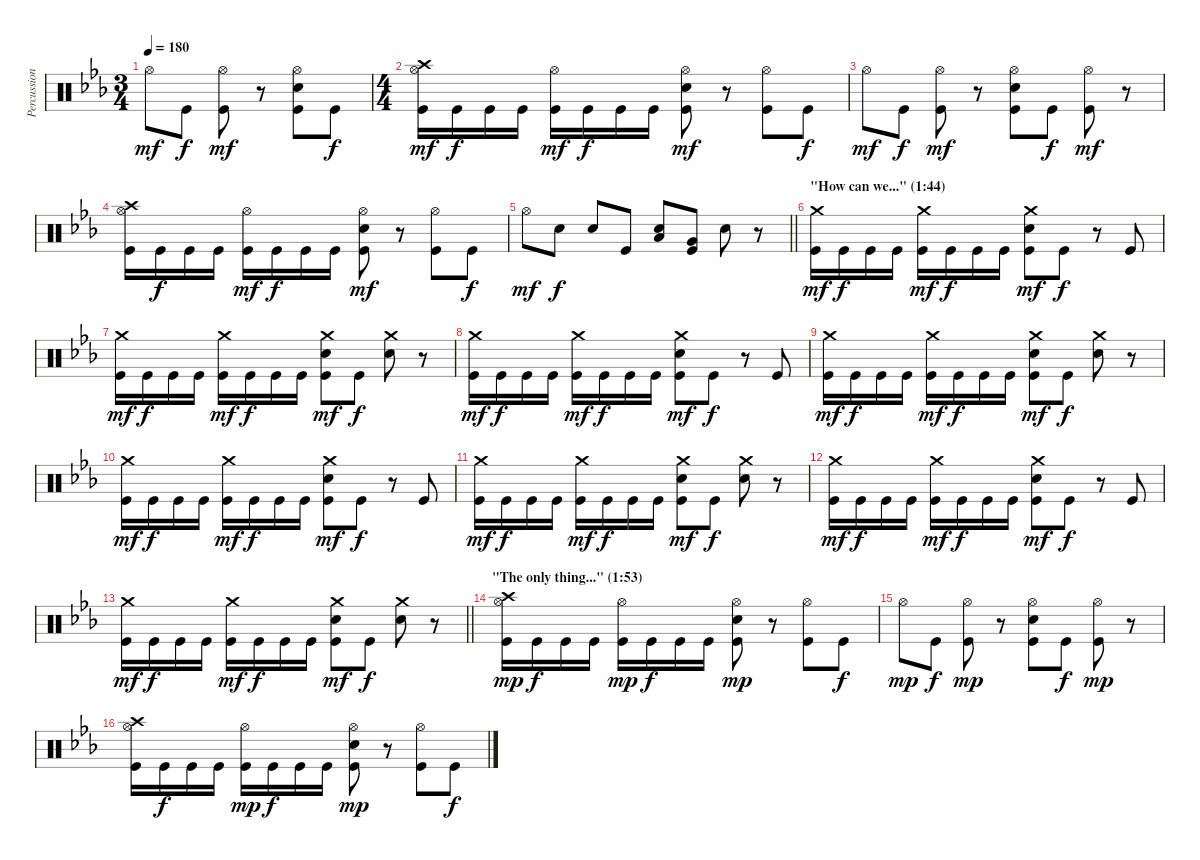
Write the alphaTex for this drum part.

\track ("Percussion" "Percussion") {instrument percussion}
\staff {score}
\articulation defaults
\ts (3 4)
\tempo 180
\clef neutral
\ks cminor "Hi-Hat (open)".8{dy mf} "Kick (hit)".8{dy f}
("Hi-Hat (open)" "Kick (hit)").8{dy mf} r.8 ("Hi-Hat (open)" "Snare (hit) 2" "Kick (hit)").8 "Kick (hit)".8{dy f} |
\ts (4 4)
("Crash high (hit)" "Hi-Hat (open)" "Kick (hit)").16{dy mf} "Kick (hit)".16{dy f} "Kick (hit)".16 "Kick (hit)".16 ("Hi-Hat (open)" "Kick (hit)").16{dy mf} "Kick (hit)".16{dy f} "Kick (hit)".16 "Kick (hit)".16 ("Hi-Hat (open)" "Snare (hit) 2" "Kick (hit)").8{dy mf} r.8 ("Hi-Hat (open)" "Kick (hit)").8 "Kick (hit)".8{dy f} |
"Hi-Hat (open)".8{dy mf} "Kick (hit)".8{dy f} ("Hi-Hat (open)" "Kick (hit)").8{dy mf} r.8 ("Hi-Hat (open)" "Snare (hit) 2" "Kick (hit)").8 "Kick (hit)".8{dy f} ("Hi-Hat (open)" "Kick (hit)").8{dy mf} r.8 |
("Crash high (hit)" "Hi-Hat (open)" "Kick (hit)").16 "Kick (hit)".16{dy f} "Kick (hit)".16 "Kick (hit)".16 ("Hi-Hat (open)" "Kick (hit)").16{dy mf} "Kick (hit)".16{dy f} "Kick (hit)".16 "Kick (hit)".16 ("Hi-Hat (open)" "Snare (hit) 2" "Kick (hit)").8{dy mf} r.8 ("Hi-Hat (open)" "Kick (hit)").8 "Kick (hit)".8{dy f} |
\barLineRight lightlight "Hi-Hat (open)".8{dy mf} "Snare (hit) 2".8{dy f} "Snare (hit) 2".8 "Kick (hit)".8
("Low Tom (hit)" "Snare (hit) 2").8 ("Very Low Tom (hit)" "Kick (hit)").8 "Snare (hit) 2".8 r.8 |
\section ("" "\"How can we...\" (1:44)")
("Crash medium (hit)" "Kick (hit)").16{dy mf} "Kick (hit)".16{dy f} "Kick (hit)".16 "Kick (hit)".16 ("Crash medium (hit)" "Kick (hit)").16{dy mf} "Kick (hit)".16{dy f} "Kick (hit)".16 "Kick (hit)".16 ("Crash medium (hit)" "Snare (hit) 2" "Kick (hit)").8{dy mf} "Kick (hit)".8{dy f} r.8 "Kick (hit)".8 |
("Crash medium (hit)" "Kick (hit)").16{dy mf} "Kick (hit)".16{dy f} "Kick (hit)".16 "Kick (hit)".16 ("Crash medium (hit)" "Kick (hit)").16{dy mf} "Kick (hit)".16{dy f} "Kick (hit)".16 "Kick (hit)".16 ("Crash medium (hit)" "Snare (hit) 2" "Kick (hit)").8{dy mf} "Kick (hit)".8{dy f} ("Crash medium (hit)" "Snare (hit) 2").8 r.8 |
("Crash medium (hit)" "Kick (hit)").16{dy mf} "Kick (hit)".16{dy f} "Kick (hit)".16 "Kick (hit)".16 ("Crash medium (hit)" "Kick (hit)").16{dy mf} "Kick (hit)".16{dy f} "Kick (hit)".16 "Kick (hit)".16 ("Crash medium (hit)" "Snare (hit) 2" "Kick (hit)").8{dy mf} "Kick (hit)".8{dy f} r.8 "Kick (hit)".8 |
("Crash medium (hit)" "Kick (hit)").16{dy mf} "Kick (hit)".16{dy f} "Kick (hit)".16 "Kick (hit)".16 ("Crash medium (hit)" "Kick (hit)").16{dy mf} "Kick (hit)".16{dy f} "Kick (hit)".16 "Kick (hit)".16 ("Crash medium (hit)" "Snare (hit) 2" "Kick (hit)").8{dy mf} "Kick (hit)".8{dy f} ("Crash medium (hit)" "Snare (hit) 2").8 r.8 |
("Crash medium (hit)" "Kick (hit)").16{dy mf} "Kick (hit)".16{dy f} "Kick (hit)".16 "Kick (hit)".16 ("Crash medium (hit)" "Kick (hit)").16{dy mf} "Kick (hit)".16{dy f} "Kick (hit)".16 "Kick (hit)".16 ("Crash medium (hit)" "Snare (hit) 2" "Kick (hit)").8{dy mf} "Kick (hit)".8{dy f} r.8 "Kick (hit)".8 |
("Crash medium (hit)" "Kick (hit)").16{dy mf} "Kick (hit)".16{dy f} "Kick (hit)".16 "Kick (hit)".16 ("Crash medium (hit)" "Kick (hit)").16{dy mf} "Kick (hit)".16{dy f} "Kick (hit)".16 "Kick (hit)".16 ("Crash medium (hit)" "Snare (hit) 2" "Kick (hit)").8{dy mf} "Kick (hit)".8{dy f} ("Crash medium (hit)" "Snare (hit) 2").8 r.8 |
("Crash medium (hit)" "Kick (hit)").16{dy mf} "Kick (hit)".16{dy f} "Kick (hit)".16 "Kick (hit)".16 ("Crash medium (hit)" "Kick (hit)").16{dy mf} "Kick (hit)".16{dy f} "Kick (hit)".16 "Kick (hit)".16 ("Crash medium (hit)" "Snare (hit) 2" "Kick (hit)").8{dy mf} "Kick (hit)".8{dy f} r.8 "Kick (hit)".8 |
\barLineRight lightlight
("Crash medium (hit)" "Kick (hit)").16{dy mf} "Kick (hit)".16{dy f} "Kick (hit)".16 "Kick (hit)".16 ("Crash medium (hit)" "Kick (hit)").16{dy mf} "Kick (hit)".16{dy f} "Kick (hit)".16 "Kick (hit)".16 ("Crash medium (hit)" "Snare (hit) 2" "Kick (hit)").8{dy mf} "Kick (hit)".8{dy f} ("Crash medium (hit)" "Snare (hit) 2").8 r.8 |
\section ("" "\"The only thing...\" (1:53)")
("Crash high (hit)" "Hi-Hat (open)" "Kick (hit)").16{dy mp} "Kick (hit)".16{dy f} "Kick (hit)".16 "Kick (hit)".16 ("Hi-Hat (open)" "Kick (hit)").16{dy mp} "Kick (hit)".16{dy f} "Kick (hit)".16 "Kick (hit)".16 ("Hi-Hat (open)" "Snare (hit) 2" "Kick (hit)").8{dy mp} r.8 ("Hi-Hat (open)" "Kick (hit)").8 "Kick (hit)".8{dy f} |
"Hi-Hat (open)".8{dy mp} "Kick (hit)".8{dy f} ("Hi-Hat (open)" "Kick (hit)").8{dy mp} r.8 ("Hi-Hat (open)" "Snare (hit) 2" "Kick (hit)").8 "Kick (hit)".8{dy f} ("Hi-Hat (open)" "Kick (hit)").8{dy mp} r.8 |
("Crash high (hit)" "Hi-Hat (open)" "Kick (hit)").16 "Kick (hit)".16{dy f} "Kick (hit)".16 "Kick (hit)".16 ("Hi-Hat (open)" "Kick (hit)").16{dy mp} "Kick (hit)".16{dy f} "Kick (hit)".16 "Kick (hit)".16 ("Hi-Hat (open)" "Snare (hit) 2" "Kick (hit)").8{dy mp} r.8 ("Hi-Hat (open)" "Kick (hit)").8 "Kick (hit)".8{dy f}
